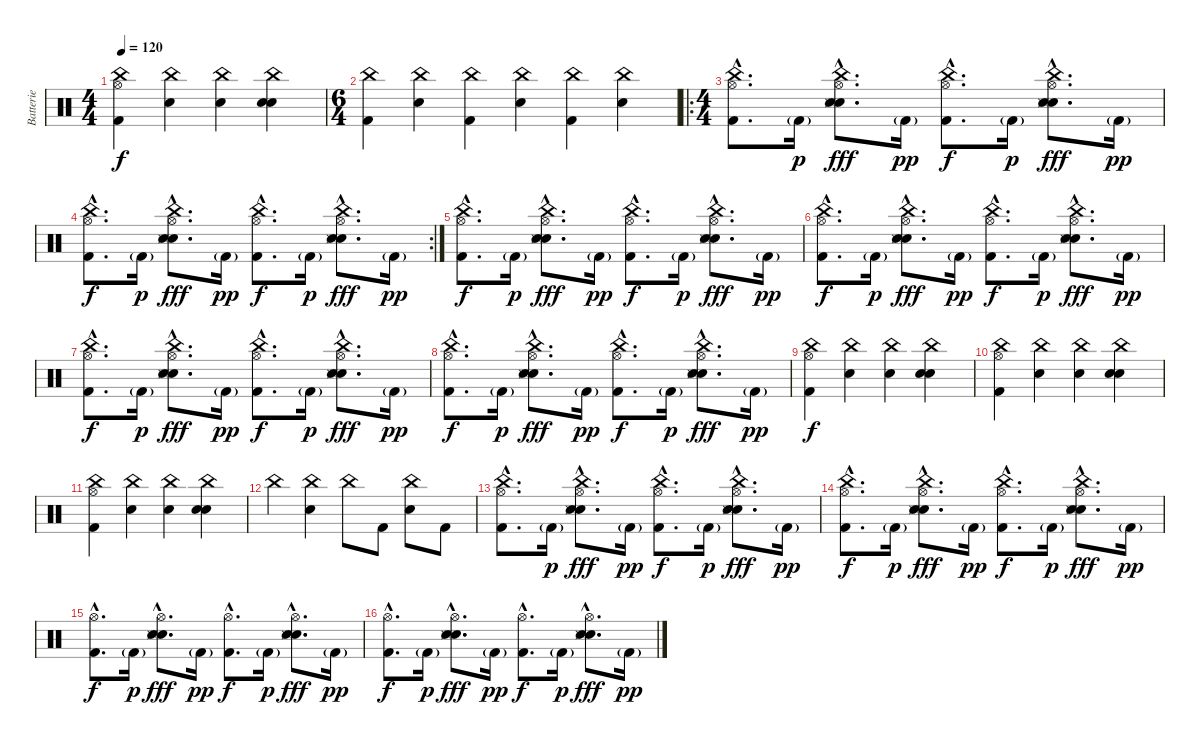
\track ("Batterie" "Batterie") {instrument percussion}
\staff {score}
\articulation defaults
\ts (4 4)
\tempo 120
\clef neutral
\ks c
("China (hit)" "Kick (hit) 2" "Hi-Hat (open)").4{dy f} ("China (hit)" "Electric Snare (hit)").4 ("China (hit)" "Electric Snare (hit)").4 ("China (hit)" "Electric Snare (hit)" "Hand Clap (hit)").4 |
\ts (6 4)
("China (hit)" "Kick (hit) 2").4 ("China (hit)" "Electric Snare (hit)").4 ("China (hit)" "Kick (hit) 2").4 ("China (hit)" "Electric Snare (hit)").4 ("China (hit)" "Kick (hit) 2").4 ("China (hit)" "Electric Snare (hit)").4 |
\ro
\ts (4 4)
("Kick (hit) 2"{hac} "Hi-Hat (open)"{hac} "China (hit)"{hac}).8{d} "Kick (hit) 2"{g}.16{dy p} ("Hand Clap (hit)"{hac} "Electric Snare (hit)"{hac} "Hi-Hat (open)"{hac} "Snare (side stick) 3"{hac} "China (hit)"{hac}).8{d dy fff} "Kick (hit) 2"{g}.16{dy pp} ("Kick (hit) 2"{hac} "Hi-Hat (open)"{hac} "China (hit)"{hac}).8{d dy f} "Kick (hit) 2"{g}.16{dy p} ("Hand Clap (hit)"{hac} "Electric Snare (hit)"{hac} "Hi-Hat (open)"{hac} "Snare (side stick) 3"{hac} "China (hit)"{hac}).8{d dy fff} "Kick (hit) 2"{g}.16{dy pp} |
\rc 2
("Kick (hit) 2"{hac} "Hi-Hat (open)"{hac} "China (hit)"{hac}).8{d dy f} "Kick (hit) 2"{g}.16{dy p} ("Hand Clap (hit)"{hac} "Electric Snare (hit)"{hac} "Hi-Hat (open)"{hac} "Snare (side stick) 3"{hac} "China (hit)"{hac}).8{d dy fff} "Kick (hit) 2"{g}.16{dy pp} ("Kick (hit) 2"{hac} "Hi-Hat (open)"{hac} "China (hit)"{hac}).8{d dy f} "Kick (hit) 2"{g}.16{dy p} ("Hand Clap (hit)"{hac} "Electric Snare (hit)"{hac} "Hi-Hat (open)"{hac} "Snare (side stick) 3"{hac} "China (hit)"{hac}).8{d dy fff} "Kick (hit) 2"{g}.16{dy pp} |
("Kick (hit) 2"{hac} "Hi-Hat (open)"{hac} "China (hit)"{hac}).8{d dy f} "Kick (hit) 2"{g}.16{dy p} ("Hand Clap (hit)"{hac} "Electric Snare (hit)"{hac} "Hi-Hat (open)"{hac} "Snare (side stick) 3"{hac} "China (hit)"{hac}).8{d dy fff} "Kick (hit) 2"{g}.16{dy pp} ("Kick (hit) 2"{hac} "Hi-Hat (open)"{hac} "China (hit)"{hac}).8{d dy f} "Kick (hit) 2"{g}.16{dy p} ("Hand Clap (hit)"{hac} "Electric Snare (hit)"{hac} "Hi-Hat (open)"{hac} "Snare (side stick) 3"{hac} "China (hit)"{hac}).8{d dy fff} "Kick (hit) 2"{g}.16{dy pp} |
("Kick (hit) 2"{hac} "Hi-Hat (open)"{hac} "China (hit)"{hac}).8{d dy f} "Kick (hit) 2"{g}.16{dy p} ("Hand Clap (hit)"{hac} "Electric Snare (hit)"{hac} "Hi-Hat (open)"{hac} "Snare (side stick) 3"{hac} "China (hit)"{hac}).8{d dy fff} "Kick (hit) 2"{g}.16{dy pp} ("Kick (hit) 2"{hac} "Hi-Hat (open)"{hac} "China (hit)"{hac}).8{d dy f} "Kick (hit) 2"{g}.16{dy p} ("Hand Clap (hit)"{hac} "Electric Snare (hit)"{hac} "Hi-Hat (open)"{hac} "Snare (side stick) 3"{hac} "China (hit)"{hac}).8{d dy fff} "Kick (hit) 2"{g}.16{dy pp} |
("Kick (hit) 2"{hac} "Hi-Hat (open)"{hac} "China (hit)"{hac}).8{d dy f} "Kick (hit) 2"{g}.16{dy p} ("Hand Clap (hit)"{hac} "Electric Snare (hit)"{hac} "Hi-Hat (open)"{hac} "Snare (side stick) 3"{hac} "China (hit)"{hac}).8{d dy fff} "Kick (hit) 2"{g}.16{dy pp} ("Kick (hit) 2"{hac} "Hi-Hat (open)"{hac} "China (hit)"{hac}).8{d dy f} "Kick (hit) 2"{g}.16{dy p} ("Hand Clap (hit)"{hac} "Electric Snare (hit)"{hac} "Hi-Hat (open)"{hac} "Snare (side stick) 3"{hac} "China (hit)"{hac}).8{d dy fff} "Kick (hit) 2"{g}.16{dy pp} |
("Kick (hit) 2"{hac} "Hi-Hat (open)"{hac} "China (hit)"{hac}).8{d dy f} "Kick (hit) 2"{g}.16{dy p} ("Hand Clap (hit)"{hac} "Electric Snare (hit)"{hac} "Hi-Hat (open)"{hac} "Snare (side stick) 3"{hac} "China (hit)"{hac}).8{d dy fff} "Kick (hit) 2"{g}.16{dy pp} ("Kick (hit) 2"{hac} "Hi-Hat (open)"{hac} "China (hit)"{hac}).8{d dy f} "Kick (hit) 2"{g}.16{dy p} ("Hand Clap (hit)"{hac} "Electric Snare (hit)"{hac} "Hi-Hat (open)"{hac} "Snare (side stick) 3"{hac} "China (hit)"{hac}).8{d dy fff} "Kick (hit) 2"{g}.16{dy pp} |
("China (hit)" "Kick (hit) 2" "Hi-Hat (open)").4{dy f} ("China (hit)" "Electric Snare (hit)").4 ("China (hit)" "Electric Snare (hit)").4 ("China (hit)" "Electric Snare (hit)" "Hand Clap (hit)").4 |
("China (hit)" "Kick (hit) 2" "Hi-Hat (open)").4 ("China (hit)" "Electric Snare (hit)").4 ("China (hit)" "Electric Snare (hit)").4 ("China (hit)" "Electric Snare (hit)" "Hand Clap (hit)").4 |
("China (hit)" "Kick (hit) 2" "Hi-Hat (open)").4 ("China (hit)" "Electric Snare (hit)").4 ("China (hit)" "Electric Snare (hit)").4 ("China (hit)" "Electric Snare (hit)" "Hand Clap (hit)").4 |
"China (hit)".4 ("China (hit)" "Electric Snare (hit)").4 "China (hit)".8 "Kick (hit) 2".8 ("China (hit)" "Electric Snare (hit)").8 "Kick (hit) 2".8 |
("Kick (hit) 2"{hac} "Hi-Hat (open)"{hac} "China (hit)"{hac}).8{d} "Kick (hit) 2"{g}.16{dy p} ("Hand Clap (hit)"{hac} "Electric Snare (hit)"{hac} "Hi-Hat (open)"{hac} "Snare (side stick) 3"{hac} "China (hit)"{hac}).8{d dy fff} "Kick (hit) 2"{g}.16{dy pp} ("Kick (hit) 2"{hac} "Hi-Hat (open)"{hac} "China (hit)"{hac}).8{d dy f} "Kick (hit) 2"{g}.16{dy p} ("Hand Clap (hit)"{hac} "Electric Snare (hit)"{hac} "Hi-Hat (open)"{hac} "Snare (side stick) 3"{hac} "China (hit)"{hac}).8{d dy fff} "Kick (hit) 2"{g}.16{dy pp} |
("Kick (hit) 2"{hac} "Hi-Hat (open)"{hac} "China (hit)"{hac}).8{d dy f} "Kick (hit) 2"{g}.16{dy p} ("Hand Clap (hit)"{hac} "Electric Snare (hit)"{hac} "Hi-Hat (open)"{hac} "Snare (side stick) 3"{hac} "China (hit)"{hac}).8{d dy fff} "Kick (hit) 2"{g}.16{dy pp} ("Kick (hit) 2"{hac} "Hi-Hat (open)"{hac} "China (hit)"{hac}).8{d dy f} "Kick (hit) 2"{g}.16{dy p} ("Hand Clap (hit)"{hac} "Electric Snare (hit)"{hac} "Hi-Hat (open)"{hac} "Snare (side stick) 3"{hac} "China (hit)"{hac}).8{d dy fff} "Kick (hit) 2"{g}.16{dy pp} |
("Kick (hit) 2"{hac} "Hi-Hat (open)"{hac}).8{d dy f} "Kick (hit) 2"{g}.16{dy p} ("Hand Clap (hit)"{hac} "Electric Snare (hit)"{hac} "Hi-Hat (open)"{hac} "Snare (side stick) 3"{hac}).8{d dy fff} "Kick (hit) 2"{g}.16{dy pp} ("Kick (hit) 2"{hac} "Hi-Hat (open)"{hac}).8{d dy f} "Kick (hit) 2"{g}.16{dy p} ("Hand Clap (hit)"{hac} "Electric Snare (hit)"{hac} "Hi-Hat (open)"{hac} "Snare (side stick) 3"{hac}).8{d dy fff} "Kick (hit) 2"{g}.16{dy pp} |
("Kick (hit) 2"{hac} "Hi-Hat (open)"{hac}).8{d dy f} "Kick (hit) 2"{g}.16{dy p} ("Hand Clap (hit)"{hac} "Electric Snare (hit)"{hac} "Hi-Hat (open)"{hac} "Snare (side stick) 3"{hac}).8{d dy fff} "Kick (hit) 2"{g}.16{dy pp} ("Kick (hit) 2"{hac} "Hi-Hat (open)"{hac}).8{d dy f} "Kick (hit) 2"{g}.16{dy p} ("Hand Clap (hit)"{hac} "Electric Snare (hit)"{hac} "Hi-Hat (open)"{hac} "Snare (side stick) 3"{hac}).8{d dy fff} "Kick (hit) 2"{g}.16{dy pp}
